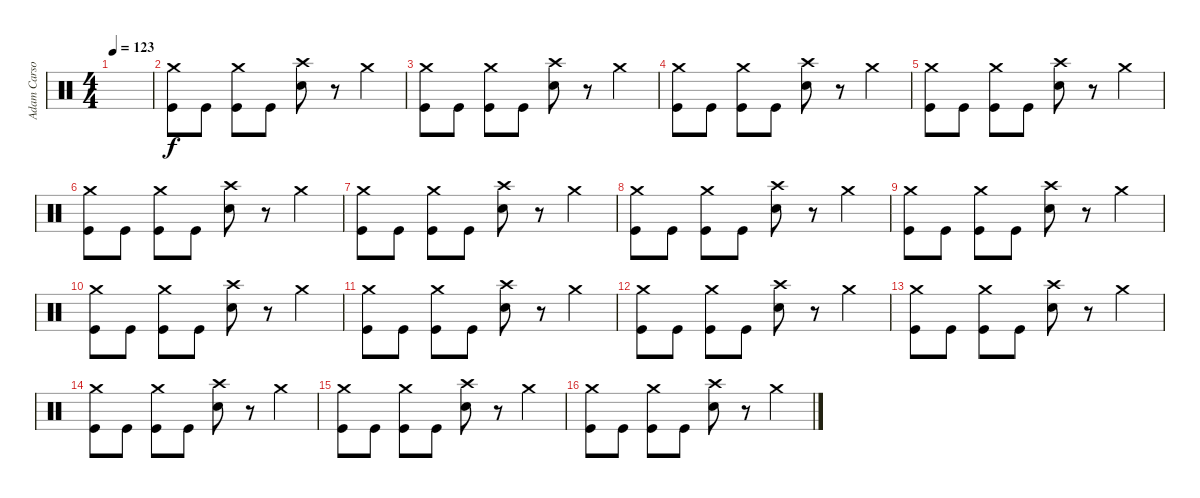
\track ("Adam Carson" "Adam Carso") {instrument percussion}
\staff {score}
\articulation defaults
\ts (4 4)
\tempo 123
\clef neutral
\ks c
|
("Crash medium (hit)" "Kick (hit)").8 "Kick (hit)".8 ("Crash medium (hit)" "Kick (hit)").8 "Kick (hit)".8 ("Crash high (hit)" "Electric Snare (hit)").8 r.8 "Crash medium (hit)".4 |
("Crash medium (hit)" "Kick (hit)").8 "Kick (hit)".8 ("Crash medium (hit)" "Kick (hit)").8 "Kick (hit)".8 ("Crash high (hit)" "Electric Snare (hit)").8 r.8 "Crash medium (hit)".4 |
("Crash medium (hit)" "Kick (hit)").8 "Kick (hit)".8 ("Crash medium (hit)" "Kick (hit)").8 "Kick (hit)".8 ("Crash high (hit)" "Electric Snare (hit)").8 r.8 "Crash medium (hit)".4 |
("Crash medium (hit)" "Kick (hit)").8 "Kick (hit)".8 ("Crash medium (hit)" "Kick (hit)").8 "Kick (hit)".8 ("Crash high (hit)" "Electric Snare (hit)").8 r.8 "Crash medium (hit)".4 |
("Crash medium (hit)" "Kick (hit)").8 "Kick (hit)".8 ("Crash medium (hit)" "Kick (hit)").8 "Kick (hit)".8 ("Crash high (hit)" "Electric Snare (hit)").8 r.8 "Crash medium (hit)".4 |
("Crash medium (hit)" "Kick (hit)").8 "Kick (hit)".8 ("Crash medium (hit)" "Kick (hit)").8 "Kick (hit)".8 ("Crash high (hit)" "Electric Snare (hit)").8 r.8 "Crash medium (hit)".4 |
("Crash medium (hit)" "Kick (hit)").8 "Kick (hit)".8 ("Crash medium (hit)" "Kick (hit)").8 "Kick (hit)".8 ("Crash high (hit)" "Electric Snare (hit)").8 r.8 "Crash medium (hit)".4 |
("Crash medium (hit)" "Kick (hit)").8 "Kick (hit)".8 ("Crash medium (hit)" "Kick (hit)").8 "Kick (hit)".8 ("Crash high (hit)" "Electric Snare (hit)").8 r.8 "Crash medium (hit)".4 |
("Crash medium (hit)" "Kick (hit)").8 "Kick (hit)".8 ("Crash medium (hit)" "Kick (hit)").8 "Kick (hit)".8 ("Crash high (hit)" "Electric Snare (hit)").8 r.8 "Crash medium (hit)".4 |
("Crash medium (hit)" "Kick (hit)").8 "Kick (hit)".8 ("Crash medium (hit)" "Kick (hit)").8 "Kick (hit)".8 ("Crash high (hit)" "Electric Snare (hit)").8 r.8 "Crash medium (hit)".4 |
("Crash medium (hit)" "Kick (hit)").8 "Kick (hit)".8 ("Crash medium (hit)" "Kick (hit)").8 "Kick (hit)".8 ("Crash high (hit)" "Electric Snare (hit)").8 r.8 "Crash medium (hit)".4 |
("Crash medium (hit)" "Kick (hit)").8 "Kick (hit)".8 ("Crash medium (hit)" "Kick (hit)").8 "Kick (hit)".8 ("Crash high (hit)" "Electric Snare (hit)").8 r.8 "Crash medium (hit)".4 |
("Crash medium (hit)" "Kick (hit)").8 "Kick (hit)".8 ("Crash medium (hit)" "Kick (hit)").8 "Kick (hit)".8 ("Crash high (hit)" "Electric Snare (hit)").8 r.8 "Crash medium (hit)".4 |
("Crash medium (hit)" "Kick (hit)").8 "Kick (hit)".8 ("Crash medium (hit)" "Kick (hit)").8 "Kick (hit)".8 ("Crash high (hit)" "Electric Snare (hit)").8 r.8 "Crash medium (hit)".4 |
("Crash medium (hit)" "Kick (hit)").8 "Kick (hit)".8 ("Crash medium (hit)" "Kick (hit)").8 "Kick (hit)".8 ("Crash high (hit)" "Electric Snare (hit)").8 r.8 "Crash medium (hit)".4
